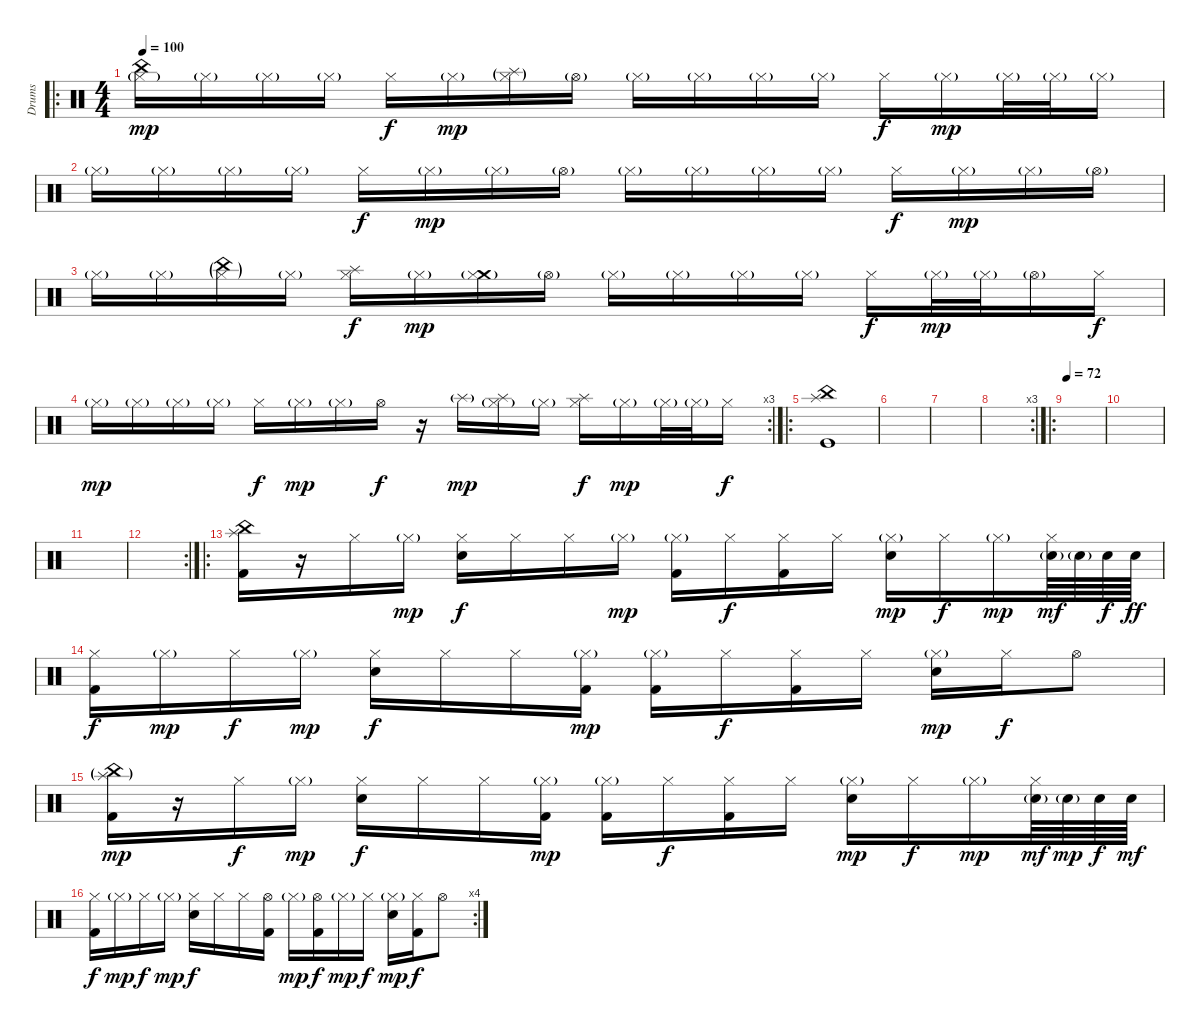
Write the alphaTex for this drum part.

\track ("Drums" "Drums") {instrument percussion}
\staff {score}
\articulation defaults
\ro
\ts (4 4)
\tempo 100
\clef neutral
\ks c
("China (hit)" "Hi-Hat (closed)"{g}).16{dy mp} "Hi-Hat (closed)"{g}.16 "Hi-Hat (closed)"{g}.16 "Hi-Hat (closed)"{g}.16 "Hi-Hat (closed)".16{dy f} "Hi-Hat (closed)"{g}.16{dy mp} ("Splash (hit)"{g} "Hi-Hat (closed)"{g}).16 "Hi-Hat (open)"{g}.16 "Hi-Hat (closed)"{g}.16 "Hi-Hat (closed)"{g}.16 "Hi-Hat (closed)"{g}.16 "Hi-Hat (closed)"{g}.16 "Hi-Hat (closed)".16{dy f} "Hi-Hat (closed)"{g}.16{dy mp} "Hi-Hat (closed)"{g}.32 "Hi-Hat (closed)"{g}.32 "Hi-Hat (closed)"{g}.16 |
"Hi-Hat (closed)"{g}.16 "Hi-Hat (closed)"{g}.16 "Hi-Hat (closed)"{g}.16 "Hi-Hat (closed)"{g}.16 "Hi-Hat (closed)".16{dy f} "Hi-Hat (closed)"{g}.16{dy mp} "Hi-Hat (closed)"{g}.16 "Hi-Hat (open)"{g}.16 "Hi-Hat (closed)"{g}.16 "Hi-Hat (closed)"{g}.16 "Hi-Hat (closed)"{g}.16 "Hi-Hat (closed)"{g}.16 "Hi-Hat (closed)".16{dy f} "Hi-Hat (closed)"{g}.16{dy mp} "Hi-Hat (closed)"{g}.16 "Hi-Hat (open)"{g}.16 |
"Hi-Hat (closed)"{g}.16 "Hi-Hat (closed)"{g}.16 ("China (hit)"{g} "Hi-Hat (closed)"{g}).16 "Hi-Hat (closed)"{g}.16 ("Splash (hit)" "Hi-Hat (closed)").16{dy f} "Hi-Hat (closed)"{g}.16{dy mp} ("Crash medium (hit)"{g} "Hi-Hat (closed)"{g}).16 "Hi-Hat (open)"{g}.16 "Hi-Hat (closed)"{g}.16 "Hi-Hat (closed)"{g}.16 "Hi-Hat (closed)"{g}.16 "Hi-Hat (closed)"{g}.16 "Hi-Hat (closed)".16{dy f} "Hi-Hat (closed)"{g}.32{dy mp} "Hi-Hat (closed)"{g}.32 "Hi-Hat (open)"{g}.16 "Hi-Hat (closed)".16{dy f} |
\rc 3 "Hi-Hat (closed)"{g}.16{dy mp} "Hi-Hat (closed)"{g}.16 "Hi-Hat (closed)"{g}.16 "Hi-Hat (closed)"{g}.16 "Hi-Hat (closed)".16{dy f} "Hi-Hat (closed)"{g}.16{dy mp} "Hi-Hat (closed)"{g}.16 "Hi-Hat (open)".16{dy f}
r.16 "Splash (hit)"{g}.16{dy mp} ("Splash (hit)" "Hi-Hat (closed)"{g}).16 "Hi-Hat (closed)"{g}.16 ("Splash (hit)" "Hi-Hat (closed)").16{dy f} "Hi-Hat (closed)"{g}.16{dy mp} "Hi-Hat (closed)"{g}.32 "Hi-Hat (closed)"{g}.32 "Hi-Hat (closed)".16{dy f} |
\ro
("Splash (hit)" "China (hit)" "Kick (hit)").1 |
|
|
\rc 3
|
\ro
\tempo 72
|
|
|
\rc 2
|
\ro
("Splash (hit)" "China (hit)" "Kick (hit) 2").16{volume 13} r.16 "Hi-Hat (closed)".16 "Hi-Hat (closed)"{g}.16{dy mp} ("Hi-Hat (closed)" "Electric Snare (hit)").16{dy f} "Hi-Hat (closed)".16 "Hi-Hat (closed)".16 "Hi-Hat (closed)"{g}.16{dy mp} ("Hi-Hat (closed)"{g} "Kick (hit) 2").16 "Hi-Hat (closed)".16{dy f} ("Hi-Hat (closed)" "Kick (hit) 2").16 "Hi-Hat (closed)".16 ("Hi-Hat (closed)"{g} "Electric Snare (hit)").16{dy mp} "Hi-Hat (closed)".16{dy f} "Hi-Hat (closed)"{g}.16{dy mp} ("Hi-Hat (closed)" "Electric Snare (hit)"{g}).64{dy mf} "Electric Snare (hit)"{g}.64 "Electric Snare (hit)".64{dy f} "Electric Snare (hit)".64{dy ff} |
("Hi-Hat (closed)" "Kick (hit) 2").16{dy f} "Hi-Hat (closed)"{g}.16{dy mp} "Hi-Hat (closed)".16{dy f} "Hi-Hat (closed)"{g}.16{dy mp} ("Hi-Hat (closed)" "Electric Snare (hit)").16{dy f} "Hi-Hat (closed)".16 "Hi-Hat (closed)".16 ("Hi-Hat (closed)"{g} "Kick (hit) 2").16{dy mp} ("Hi-Hat (closed)"{g} "Kick (hit) 2").16 "Hi-Hat (closed)".16{dy f} ("Hi-Hat (closed)" "Kick (hit) 2").16 "Hi-Hat (closed)".16 ("Hi-Hat (closed)"{g} "Electric Snare (hit)").16{dy mp} "Hi-Hat (closed)".16{dy f} "Hi-Hat (open)".8 |
("Splash (hit)"{g} "China (hit)"{g} "Kick (hit) 2").16{dy mp} r.16 "Hi-Hat (closed)".16{dy f} "Hi-Hat (closed)"{g}.16{dy mp} ("Hi-Hat (closed)" "Electric Snare (hit)").16{dy f} "Hi-Hat (closed)".16 "Hi-Hat (closed)".16 ("Hi-Hat (closed)"{g} "Kick (hit) 2").16{dy mp} ("Hi-Hat (closed)"{g} "Kick (hit) 2").16 "Hi-Hat (closed)".16{dy f} ("Hi-Hat (closed)" "Kick (hit) 2").16 "Hi-Hat (closed)".16 ("Hi-Hat (closed)"{g} "Electric Snare (hit)").16{dy mp} "Hi-Hat (closed)".16{dy f} "Hi-Hat (closed)"{g}.16{dy mp} ("Hi-Hat (closed)" "Electric Snare (hit)"{g}).64{dy mf} "Electric Snare (hit)"{g}.64{dy mp} "Electric Snare (hit)".64{dy f} "Electric Snare (hit)".64{dy mf} |
\rc 4
("Hi-Hat (closed)" "Kick (hit) 2").16{dy f} "Hi-Hat (closed)"{g}.16{dy mp} "Hi-Hat (closed)".16{dy f} "Hi-Hat (closed)"{g}.16{dy mp} ("Hi-Hat (closed)" "Electric Snare (hit)").16{dy f} "Hi-Hat (closed)".16 "Hi-Hat (closed)".16 ("Hi-Hat (open)" "Kick (hit) 2").16 "Hi-Hat (closed)"{g}.16{dy mp} ("Hi-Hat (open)" "Kick (hit) 2").16{dy f} "Hi-Hat (closed)"{g}.16{dy mp} "Hi-Hat (closed)".16{dy f} ("Hi-Hat (closed)"{g} "Electric Snare (hit)").16{dy mp} ("Hi-Hat (closed)" "Kick (hit) 2").16{dy f} "Hi-Hat (open)".8
